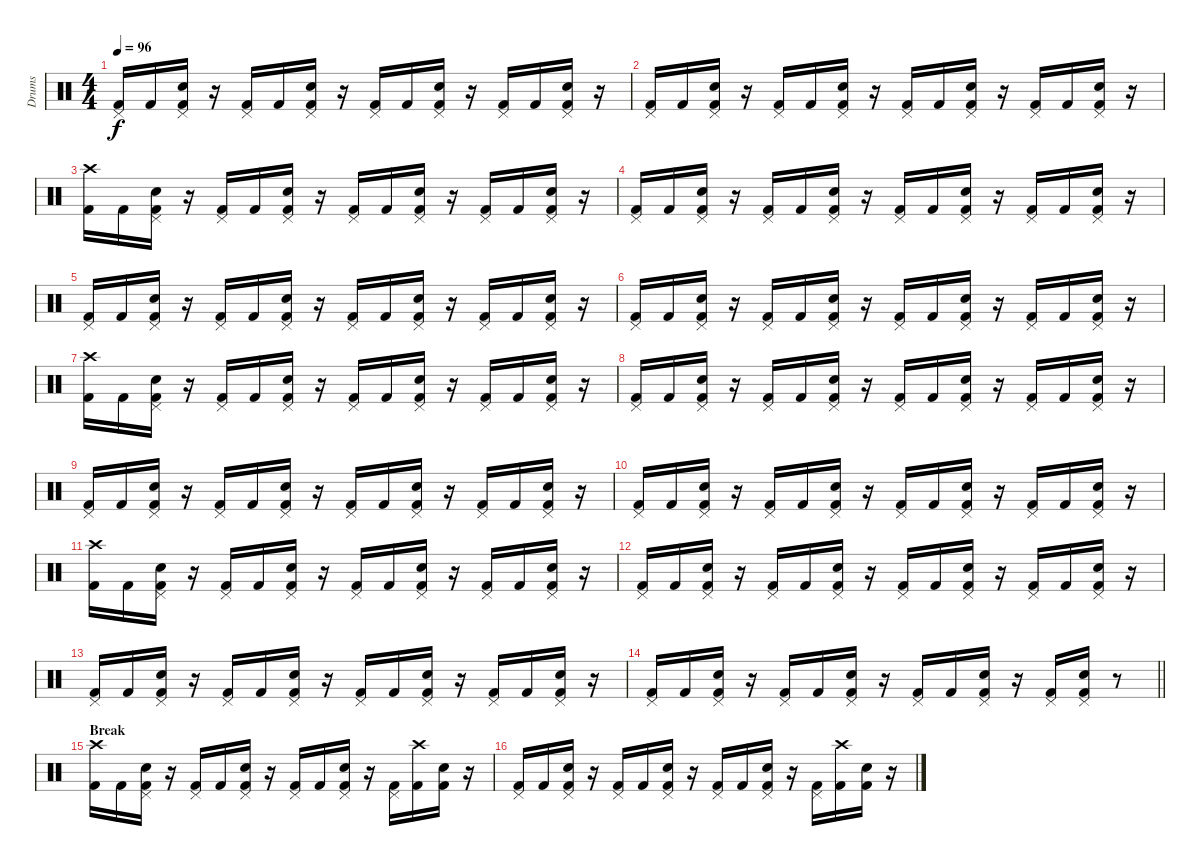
\track ("Drums" "Drums") {instrument percussion}
\staff {score}
\articulation defaults
\ts (4 4)
\tempo 96
\clef neutral
\ks c
("Pedal Hi-Hat (hit)" "Kick (hit) 2").16{dy f} "Kick (hit) 2".16 ("Pedal Hi-Hat (hit)" "Snare (hit) 2" "Kick (hit) 2").16 r.16 ("Pedal Hi-Hat (hit)" "Kick (hit) 2").16 "Kick (hit) 2".16 ("Pedal Hi-Hat (hit)" "Snare (hit) 2" "Kick (hit) 2").16 r.16 ("Pedal Hi-Hat (hit)" "Kick (hit) 2").16 "Kick (hit) 2".16 ("Pedal Hi-Hat (hit)" "Snare (hit) 2" "Kick (hit) 2").16 r.16 ("Pedal Hi-Hat (hit)" "Kick (hit) 2").16 "Kick (hit) 2".16 ("Pedal Hi-Hat (hit)" "Snare (hit) 2" "Kick (hit) 2").16 r.16 |
("Pedal Hi-Hat (hit)" "Kick (hit) 2").16 "Kick (hit) 2".16 ("Pedal Hi-Hat (hit)" "Snare (hit) 2" "Kick (hit) 2").16 r.16 ("Pedal Hi-Hat (hit)" "Kick (hit) 2").16 "Kick (hit) 2".16 ("Pedal Hi-Hat (hit)" "Snare (hit) 2" "Kick (hit) 2").16 r.16 ("Pedal Hi-Hat (hit)" "Kick (hit) 2").16 "Kick (hit) 2".16 ("Pedal Hi-Hat (hit)" "Snare (hit) 2" "Kick (hit) 2").16 r.16 ("Pedal Hi-Hat (hit)" "Kick (hit) 2").16 "Kick (hit) 2".16 ("Pedal Hi-Hat (hit)" "Snare (hit) 2" "Kick (hit) 2").16 r.16 |
("Crash high (hit)" "Kick (hit) 2").16 "Kick (hit) 2".16 ("Pedal Hi-Hat (hit)" "Snare (hit) 2" "Kick (hit) 2").16 r.16 ("Pedal Hi-Hat (hit)" "Kick (hit) 2").16 "Kick (hit) 2".16 ("Pedal Hi-Hat (hit)" "Snare (hit) 2" "Kick (hit) 2").16 r.16 ("Pedal Hi-Hat (hit)" "Kick (hit) 2").16 "Kick (hit) 2".16 ("Pedal Hi-Hat (hit)" "Snare (hit) 2" "Kick (hit) 2").16 r.16 ("Pedal Hi-Hat (hit)" "Kick (hit) 2").16 "Kick (hit) 2".16 ("Pedal Hi-Hat (hit)" "Snare (hit) 2" "Kick (hit) 2").16 r.16 |
("Pedal Hi-Hat (hit)" "Kick (hit) 2").16 "Kick (hit) 2".16 ("Pedal Hi-Hat (hit)" "Snare (hit) 2" "Kick (hit) 2").16 r.16 ("Pedal Hi-Hat (hit)" "Kick (hit) 2").16 "Kick (hit) 2".16 ("Pedal Hi-Hat (hit)" "Snare (hit) 2" "Kick (hit) 2").16 r.16 ("Pedal Hi-Hat (hit)" "Kick (hit) 2").16 "Kick (hit) 2".16 ("Pedal Hi-Hat (hit)" "Snare (hit) 2" "Kick (hit) 2").16 r.16 ("Pedal Hi-Hat (hit)" "Kick (hit) 2").16 "Kick (hit) 2".16 ("Pedal Hi-Hat (hit)" "Snare (hit) 2" "Kick (hit) 2").16 r.16 |
("Pedal Hi-Hat (hit)" "Kick (hit) 2").16 "Kick (hit) 2".16 ("Pedal Hi-Hat (hit)" "Snare (hit) 2" "Kick (hit) 2").16 r.16 ("Pedal Hi-Hat (hit)" "Kick (hit) 2").16 "Kick (hit) 2".16 ("Pedal Hi-Hat (hit)" "Snare (hit) 2" "Kick (hit) 2").16 r.16 ("Pedal Hi-Hat (hit)" "Kick (hit) 2").16 "Kick (hit) 2".16 ("Pedal Hi-Hat (hit)" "Snare (hit) 2" "Kick (hit) 2").16 r.16 ("Pedal Hi-Hat (hit)" "Kick (hit) 2").16 "Kick (hit) 2".16 ("Pedal Hi-Hat (hit)" "Snare (hit) 2" "Kick (hit) 2").16 r.16 |
("Pedal Hi-Hat (hit)" "Kick (hit) 2").16 "Kick (hit) 2".16 ("Pedal Hi-Hat (hit)" "Snare (hit) 2" "Kick (hit) 2").16 r.16 ("Pedal Hi-Hat (hit)" "Kick (hit) 2").16 "Kick (hit) 2".16 ("Pedal Hi-Hat (hit)" "Snare (hit) 2" "Kick (hit) 2").16 r.16 ("Pedal Hi-Hat (hit)" "Kick (hit) 2").16 "Kick (hit) 2".16 ("Pedal Hi-Hat (hit)" "Snare (hit) 2" "Kick (hit) 2").16 r.16 ("Pedal Hi-Hat (hit)" "Kick (hit) 2").16 "Kick (hit) 2".16 ("Pedal Hi-Hat (hit)" "Snare (hit) 2" "Kick (hit) 2").16 r.16 |
("Crash high (hit)" "Kick (hit) 2").16 "Kick (hit) 2".16 ("Pedal Hi-Hat (hit)" "Snare (hit) 2" "Kick (hit) 2").16 r.16 ("Pedal Hi-Hat (hit)" "Kick (hit) 2").16 "Kick (hit) 2".16 ("Pedal Hi-Hat (hit)" "Snare (hit) 2" "Kick (hit) 2").16 r.16 ("Pedal Hi-Hat (hit)" "Kick (hit) 2").16 "Kick (hit) 2".16 ("Pedal Hi-Hat (hit)" "Snare (hit) 2" "Kick (hit) 2").16 r.16 ("Pedal Hi-Hat (hit)" "Kick (hit) 2").16 "Kick (hit) 2".16 ("Pedal Hi-Hat (hit)" "Snare (hit) 2" "Kick (hit) 2").16 r.16 |
("Pedal Hi-Hat (hit)" "Kick (hit) 2").16 "Kick (hit) 2".16 ("Pedal Hi-Hat (hit)" "Snare (hit) 2" "Kick (hit) 2").16 r.16 ("Pedal Hi-Hat (hit)" "Kick (hit) 2").16 "Kick (hit) 2".16 ("Pedal Hi-Hat (hit)" "Snare (hit) 2" "Kick (hit) 2").16 r.16 ("Pedal Hi-Hat (hit)" "Kick (hit) 2").16 "Kick (hit) 2".16 ("Pedal Hi-Hat (hit)" "Snare (hit) 2" "Kick (hit) 2").16 r.16 ("Pedal Hi-Hat (hit)" "Kick (hit) 2").16 "Kick (hit) 2".16 ("Pedal Hi-Hat (hit)" "Snare (hit) 2" "Kick (hit) 2").16 r.16 |
("Pedal Hi-Hat (hit)" "Kick (hit) 2").16 "Kick (hit) 2".16 ("Pedal Hi-Hat (hit)" "Snare (hit) 2" "Kick (hit) 2").16 r.16 ("Pedal Hi-Hat (hit)" "Kick (hit) 2").16 "Kick (hit) 2".16 ("Pedal Hi-Hat (hit)" "Snare (hit) 2" "Kick (hit) 2").16 r.16 ("Pedal Hi-Hat (hit)" "Kick (hit) 2").16 "Kick (hit) 2".16 ("Pedal Hi-Hat (hit)" "Snare (hit) 2" "Kick (hit) 2").16 r.16 ("Pedal Hi-Hat (hit)" "Kick (hit) 2").16 "Kick (hit) 2".16 ("Pedal Hi-Hat (hit)" "Snare (hit) 2" "Kick (hit) 2").16 r.16 |
("Pedal Hi-Hat (hit)" "Kick (hit) 2").16 "Kick (hit) 2".16 ("Pedal Hi-Hat (hit)" "Snare (hit) 2" "Kick (hit) 2").16 r.16 ("Pedal Hi-Hat (hit)" "Kick (hit) 2").16 "Kick (hit) 2".16 ("Pedal Hi-Hat (hit)" "Snare (hit) 2" "Kick (hit) 2").16 r.16 ("Pedal Hi-Hat (hit)" "Kick (hit) 2").16 "Kick (hit) 2".16 ("Pedal Hi-Hat (hit)" "Snare (hit) 2" "Kick (hit) 2").16 r.16 ("Pedal Hi-Hat (hit)" "Kick (hit) 2").16 "Kick (hit) 2".16 ("Pedal Hi-Hat (hit)" "Snare (hit) 2" "Kick (hit) 2").16 r.16 |
("Crash high (hit)" "Kick (hit) 2").16 "Kick (hit) 2".16 ("Pedal Hi-Hat (hit)" "Snare (hit) 2" "Kick (hit) 2").16 r.16 ("Pedal Hi-Hat (hit)" "Kick (hit) 2").16 "Kick (hit) 2".16 ("Pedal Hi-Hat (hit)" "Snare (hit) 2" "Kick (hit) 2").16 r.16 ("Pedal Hi-Hat (hit)" "Kick (hit) 2").16 "Kick (hit) 2".16 ("Pedal Hi-Hat (hit)" "Snare (hit) 2" "Kick (hit) 2").16 r.16 ("Pedal Hi-Hat (hit)" "Kick (hit) 2").16 "Kick (hit) 2".16 ("Pedal Hi-Hat (hit)" "Snare (hit) 2" "Kick (hit) 2").16 r.16 |
("Pedal Hi-Hat (hit)" "Kick (hit) 2").16 "Kick (hit) 2".16 ("Pedal Hi-Hat (hit)" "Snare (hit) 2" "Kick (hit) 2").16 r.16 ("Pedal Hi-Hat (hit)" "Kick (hit) 2").16 "Kick (hit) 2".16 ("Pedal Hi-Hat (hit)" "Snare (hit) 2" "Kick (hit) 2").16 r.16 ("Pedal Hi-Hat (hit)" "Kick (hit) 2").16 "Kick (hit) 2".16 ("Pedal Hi-Hat (hit)" "Snare (hit) 2" "Kick (hit) 2").16 r.16 ("Pedal Hi-Hat (hit)" "Kick (hit) 2").16 "Kick (hit) 2".16 ("Pedal Hi-Hat (hit)" "Snare (hit) 2" "Kick (hit) 2").16 r.16 |
("Pedal Hi-Hat (hit)" "Kick (hit) 2").16 "Kick (hit) 2".16 ("Pedal Hi-Hat (hit)" "Snare (hit) 2" "Kick (hit) 2").16 r.16 ("Pedal Hi-Hat (hit)" "Kick (hit) 2").16 "Kick (hit) 2".16 ("Pedal Hi-Hat (hit)" "Snare (hit) 2" "Kick (hit) 2").16 r.16 ("Pedal Hi-Hat (hit)" "Kick (hit) 2").16 "Kick (hit) 2".16 ("Pedal Hi-Hat (hit)" "Snare (hit) 2" "Kick (hit) 2").16 r.16 ("Pedal Hi-Hat (hit)" "Kick (hit) 2").16 "Kick (hit) 2".16 ("Pedal Hi-Hat (hit)" "Snare (hit) 2" "Kick (hit) 2").16 r.16 |
\barLineRight lightlight
("Pedal Hi-Hat (hit)" "Kick (hit) 2").16 "Kick (hit) 2".16 ("Pedal Hi-Hat (hit)" "Snare (hit) 2" "Kick (hit) 2").16 r.16 ("Pedal Hi-Hat (hit)" "Kick (hit) 2").16 "Kick (hit) 2".16 ("Pedal Hi-Hat (hit)" "Snare (hit) 2" "Kick (hit) 2").16 r.16 ("Pedal Hi-Hat (hit)" "Kick (hit) 2").16 "Kick (hit) 2".16 ("Pedal Hi-Hat (hit)" "Snare (hit) 2" "Kick (hit) 2").16 r.16 ("Pedal Hi-Hat (hit)" "Kick (hit) 2").16 ("Pedal Hi-Hat (hit)" "Snare (hit) 2" "Kick (hit) 2").16 r.8 |
\section ("" "Break")
("Crash high (hit)" "Kick (hit) 2").16 "Kick (hit) 2".16 ("Pedal Hi-Hat (hit)" "Snare (hit) 2" "Kick (hit) 2").16 r.16 ("Pedal Hi-Hat (hit)" "Kick (hit) 2").16 "Kick (hit) 2".16 ("Pedal Hi-Hat (hit)" "Snare (hit) 2" "Kick (hit) 2").16 r.16 ("Pedal Hi-Hat (hit)" "Kick (hit) 2").16 "Kick (hit) 2".16 ("Pedal Hi-Hat (hit)" "Snare (hit) 2" "Kick (hit) 2").16 r.16 ("Pedal Hi-Hat (hit)" "Kick (hit) 2").16 ("Crash high (hit)" "Kick (hit) 2").16 ("Snare (hit) 2" "Kick (hit) 2").16 r.16 |
("Pedal Hi-Hat (hit)" "Kick (hit) 2").16 "Kick (hit) 2".16 ("Pedal Hi-Hat (hit)" "Snare (hit) 2" "Kick (hit) 2").16 r.16 ("Pedal Hi-Hat (hit)" "Kick (hit) 2").16 "Kick (hit) 2".16 ("Pedal Hi-Hat (hit)" "Snare (hit) 2" "Kick (hit) 2").16 r.16 ("Pedal Hi-Hat (hit)" "Kick (hit) 2").16 "Kick (hit) 2".16 ("Pedal Hi-Hat (hit)" "Snare (hit) 2" "Kick (hit) 2").16 r.16 ("Pedal Hi-Hat (hit)" "Kick (hit) 2").16 ("Crash high (hit)" "Kick (hit) 2").16 ("Snare (hit) 2" "Kick (hit) 2").16 r.16
